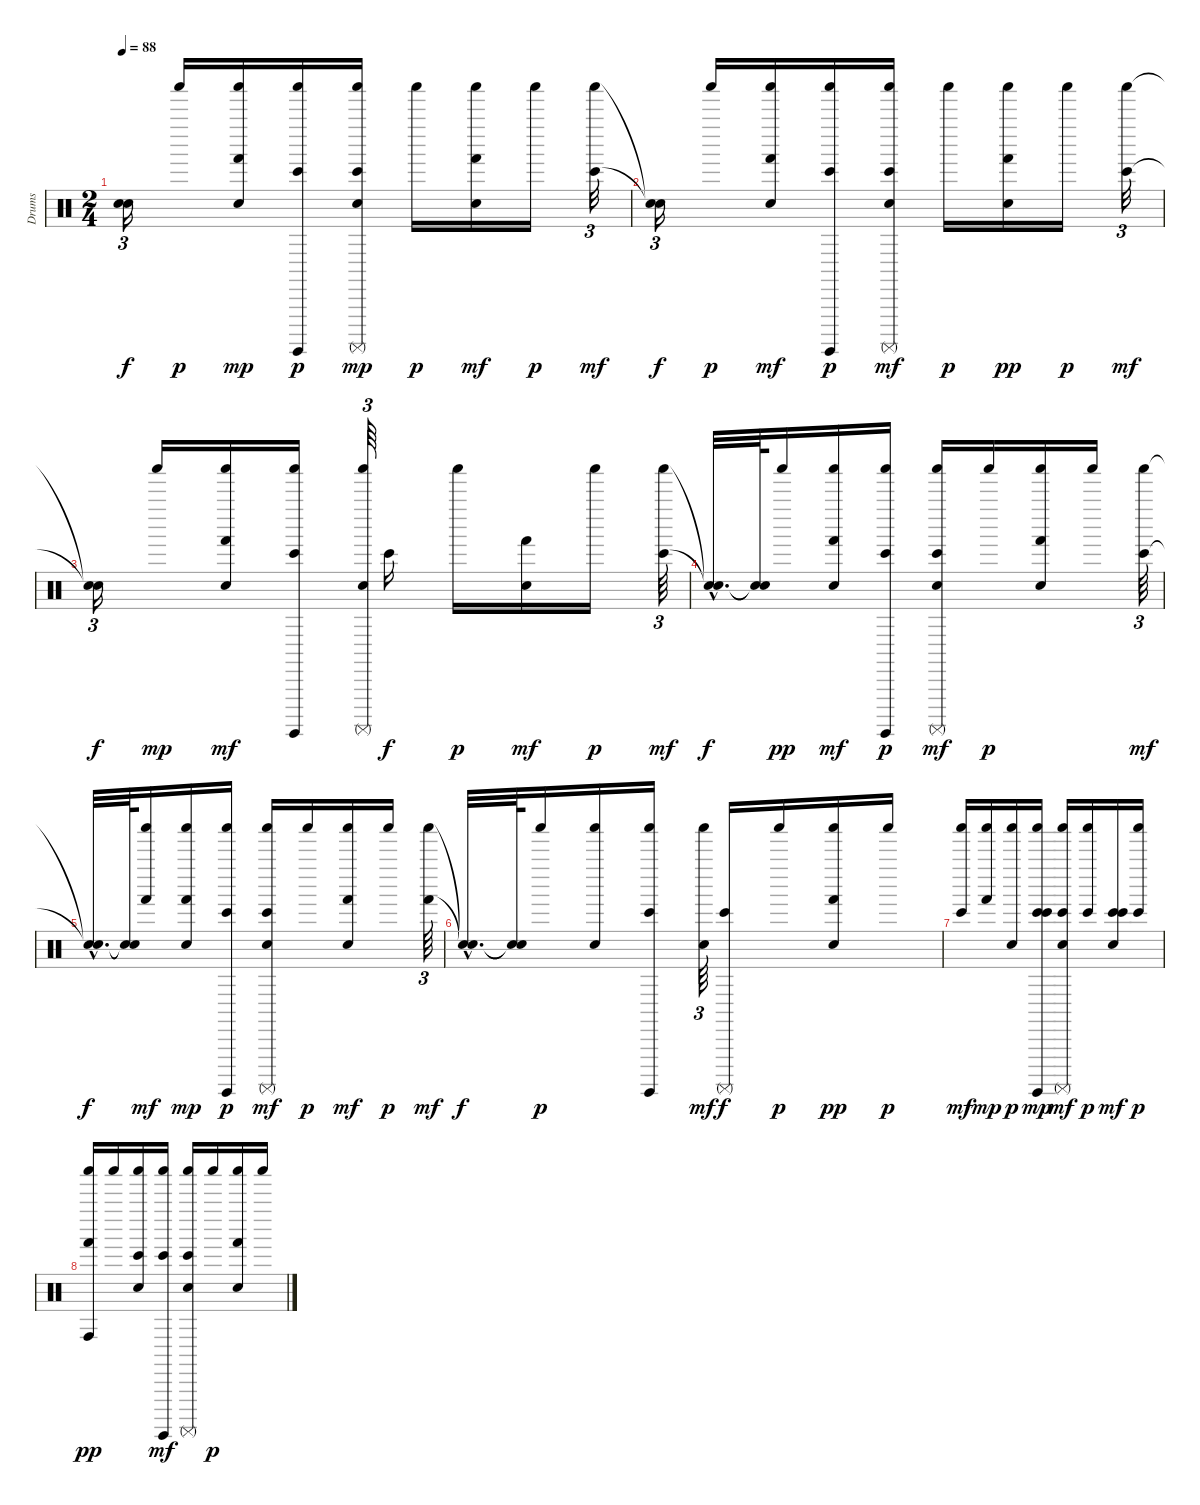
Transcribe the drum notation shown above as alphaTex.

\track ("Drums" "Drums") {instrument percussion}
\staff {score}
\articulation defaults
\ts (2 4)
\tempo 88
\clef neutral
\ks c
("Snare (hit)"{t} "Snare (hit)"{t}).16{tu (3 2) dy f} "Shaker (hit)".16{dy p} ("Shaker (hit)" "Hand Clap (hit)" "Hand (hit)").16{dy mp} ("Shaker (hit)" "Bongo High (hit)" "Surdo (hit)").16{dy p} ("Shaker (hit)" "Hand Clap (hit)" "Surdo (mute)" "Bongo High (hit)").16{dy mp} "Shaker (hit)".16{dy p} ("Shaker (hit)" "Hand (hit)" "Hand Clap (hit)").16{dy mf} "Shaker (hit)".16{dy p} ("Bongo High (hit)" "Shaker (hit)").32{tu (3 2) dy mf} |
("Snare (hit)"{t} "Snare (hit)"{t}).16{tu (3 2) dy f} "Shaker (hit)".16{dy p} ("Shaker (hit)" "Hand Clap (hit)" "Hand (hit)").16{dy mf} ("Bongo High (hit)" "Shaker (hit)" "Surdo (hit)").16{dy p} ("Hand Clap (hit)" "Shaker (hit)" "Bongo High (hit)" "Surdo (mute)").16{dy mf} "Shaker (hit)".16{dy p} ("Hand Clap (hit)" "Hand (hit)" "Shaker (hit)").16{dy pp} "Shaker (hit)".16{dy p} ("Bongo High (hit)" "Shaker (hit)").32{tu (3 2) dy mf} |
("Snare (hit)"{t} "Snare (hit)"{t}).16{tu (3 2) dy f} "Shaker (hit)".16{dy mp} ("Hand Clap (hit)" "Shaker (hit)" "Hand (hit)").16{dy mf} ("Surdo (hit)" "Shaker (hit)" "Bongo High (hit)").16 ("Hand Clap (hit)" "Shaker (hit)" "Surdo (mute)").64{tu (3 2)} "Bongo High (hit)".16{dy f} "Shaker (hit)".16{dy p} ("Hand Clap (hit)" "Hand (hit)").16{dy mf} "Shaker (hit)".16{dy p} ("Shaker (hit)" "Bongo High (hit)").64{tu (3 2) dy mf} |
("Snare (hit)"{hac t} "Snare (hit)"{hac t}).32{d dy f} ("Snare (hit)"{t} "Snare (hit)"{t}).64 "Shaker (hit)".16{dy pp} ("Hand Clap (hit)" "Shaker (hit)" "Hand (hit)").16{dy mf} ("Surdo (hit)" "Shaker (hit)" "Bongo High (hit)").16{dy p} ("Surdo (mute)" "Hand Clap (hit)" "Shaker (hit)" "Bongo High (hit)").16{dy mf} "Shaker (hit)".16{dy p} ("Hand Clap (hit)" "Shaker (hit)" "Hand (hit)").16 "Shaker (hit)".16 ("Shaker (hit)" "Bongo High (hit)").64{tu (3 2) dy mf} |
("Snare (hit)"{hac t} "Snare (hit)"{hac t}).32{d dy f} ("Snare (hit)"{t} "Snare (hit)"{t}).64 ("Shaker (hit)" "Hand (hit)").16{dy mf} ("Hand Clap (hit)" "Shaker (hit)" "Hand (hit)").16{dy mp} ("Shaker (hit)" "Bongo High (hit)" "Surdo (hit)").16{dy p} ("Hand Clap (hit)" "Shaker (hit)" "Bongo High (hit)" "Surdo (mute)").16{dy mf} "Shaker (hit)".16{dy p} ("Shaker (hit)" "Hand (hit)" "Hand Clap (hit)").16{dy mf} "Shaker (hit)".16{dy p} ("Shaker (hit)" "Hand (hit)").64{tu (3 2) dy mf} |
("Snare (hit)"{hac t} "Snare (hit)"{hac t}).32{d dy f} ("Snare (hit)"{t} "Snare (hit)"{t}).64 "Shaker (hit)".16{dy p} ("Hand Clap (hit)" "Shaker (hit)").16 ("Shaker (hit)" "Bongo High (hit)" "Surdo (hit)").16 ("Hand Clap (hit)" "Shaker (hit)").64{tu (3 2) dy mf} ("Bongo High (hit)" "Surdo (mute)").16{dy f} "Shaker (hit)".16{dy p} ("Hand Clap (hit)" "Shaker (hit)" "Hand (hit)").16{dy pp} "Shaker (hit)".16{dy p} |
("Shaker (hit)" "Bongo High (hit)").16{dy mf} ("Shaker (hit)" "Hand (hit)").16{dy mp} ("Hand Clap (hit)" "Shaker (hit)").16{dy p} ("Shaker (hit)" "Surdo (hit)" "Bongo High (hit)" "Bongo High (hit)").16{dy mp} ("Shaker (hit)" "Hand Clap (hit)" "Bongo High (hit)" "Surdo (mute)").16{dy mf} ("Shaker (hit)" "Bongo High (hit)").16{dy p} ("Bongo High (hit)" "Hand Clap (hit)" "Bongo High (hit)").16{dy mf} ("Shaker (hit)" "Bongo High (hit)").16{dy p} |
("Shaker (hit)" "Hand (hit)" "Conga high (hit)").16{dy pp} "Shaker (hit)".16 ("Hand Clap (hit)" "Shaker (hit)" "Bongo High (hit)").16 ("Shaker (hit)" "Bongo High (hit)" "Surdo (hit)").16{dy mf} ("Hand Clap (hit)" "Shaker (hit)" "Bongo High (hit)" "Surdo (mute)").16 "Shaker (hit)".16{dy p} ("Hand Clap (hit)" "Hand (hit)" "Shaker (hit)").16 "Shaker (hit)".16
